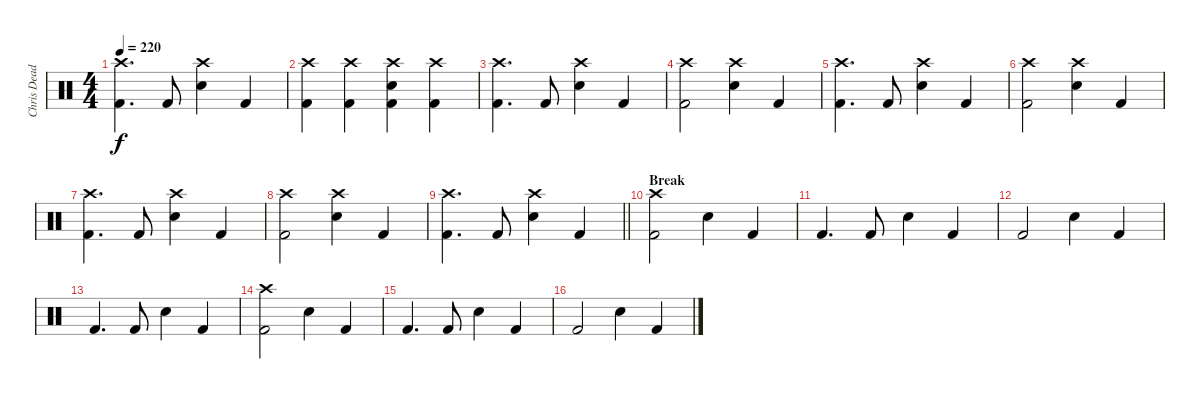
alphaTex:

\track ("Chris Dead" "Chris Dead") {instrument percussion}
\staff {score}
\articulation defaults
\ts (4 4)
\tempo 220
\clef neutral
\ks c
("Crash high (hit)" "Kick (hit) 2").4{d dy f} "Kick (hit) 2".8 ("Crash high (hit)" "Electric Snare (hit)").4 "Kick (hit) 2".4 |
("Crash high (hit)" "Kick (hit) 2").4 ("Crash high (hit)" "Kick (hit) 2").4 ("Crash high (hit)" "Electric Snare (hit)" "Kick (hit) 2").4 ("Crash high (hit)" "Kick (hit) 2").4 |
("Crash high (hit)" "Kick (hit) 2").4{d} "Kick (hit) 2".8 ("Crash high (hit)" "Electric Snare (hit)").4 "Kick (hit) 2".4 |
("Crash high (hit)" "Kick (hit) 2").2 ("Crash high (hit)" "Electric Snare (hit)").4 "Kick (hit) 2".4 |
("Crash high (hit)" "Kick (hit) 2").4{d} "Kick (hit) 2".8 ("Crash high (hit)" "Electric Snare (hit)").4 "Kick (hit) 2".4 |
("Crash high (hit)" "Kick (hit) 2").2 ("Crash high (hit)" "Electric Snare (hit)").4 "Kick (hit) 2".4 |
("Crash high (hit)" "Kick (hit) 2").4{d} "Kick (hit) 2".8 ("Crash high (hit)" "Electric Snare (hit)").4 "Kick (hit) 2".4 |
("Crash high (hit)" "Kick (hit) 2").2 ("Crash high (hit)" "Electric Snare (hit)").4 "Kick (hit) 2".4 |
\barLineRight lightlight
("Crash high (hit)" "Kick (hit) 2").4{d} "Kick (hit) 2".8 ("Crash high (hit)" "Electric Snare (hit)").4 "Kick (hit) 2".4 |
\section ("" "Break")
("Crash high (hit)" "Kick (hit) 2").2 "Electric Snare (hit)".4 "Kick (hit) 2".4 |
"Kick (hit) 2".4{d} "Kick (hit) 2".8 "Electric Snare (hit)".4 "Kick (hit) 2".4 |
"Kick (hit) 2".2 "Electric Snare (hit)".4 "Kick (hit) 2".4 |
"Kick (hit) 2".4{d} "Kick (hit) 2".8 "Electric Snare (hit)".4 "Kick (hit) 2".4 |
("Crash high (hit)" "Kick (hit) 2").2 "Electric Snare (hit)".4 "Kick (hit) 2".4 |
"Kick (hit) 2".4{d} "Kick (hit) 2".8 "Electric Snare (hit)".4 "Kick (hit) 2".4 |
"Kick (hit) 2".2 "Electric Snare (hit)".4 "Kick (hit) 2".4
